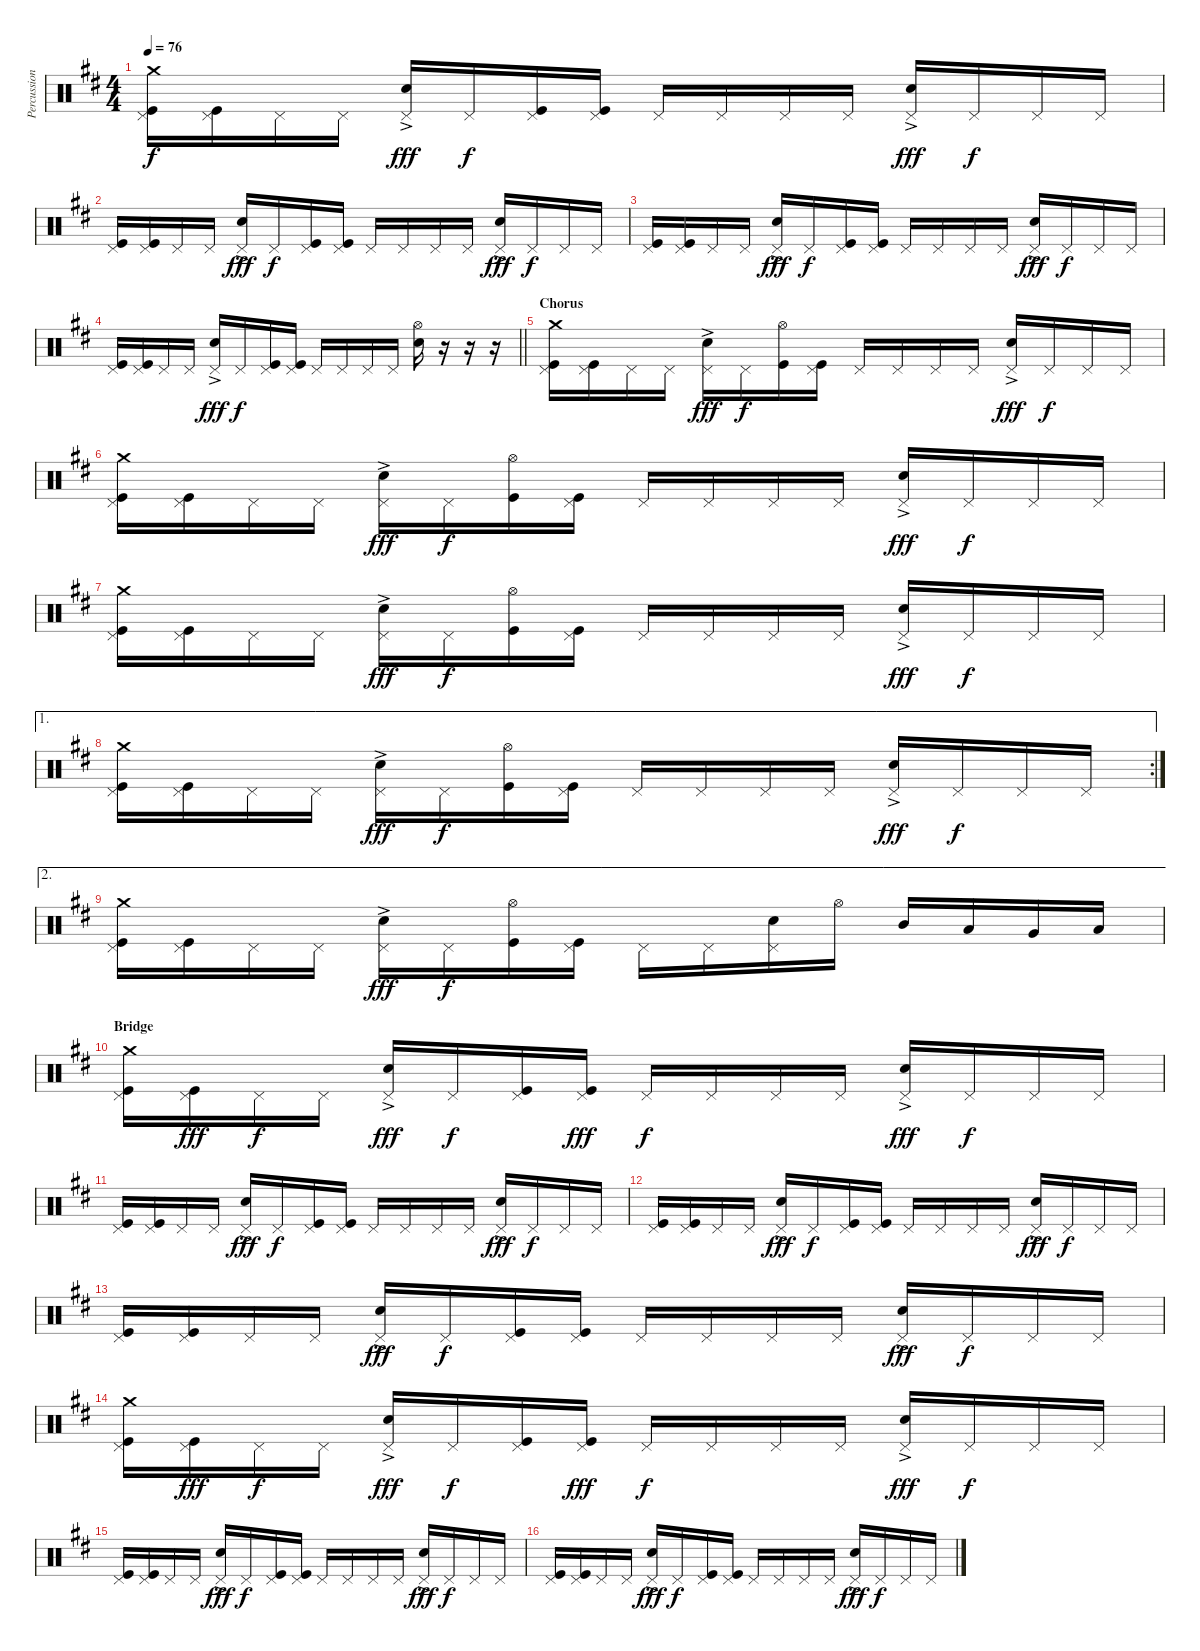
\track ("Percussion" "Percussion") {instrument percussion}
\staff {score}
\articulation defaults
\ts (4 4)
\tempo 76
\clef neutral
\ks d
("Kick (hit)" "Pedal Hi-Hat (hit)" "Crash medium (hit)").16{dy f} ("Kick (hit)" "Pedal Hi-Hat (hit)").16 "Pedal Hi-Hat (hit)".16 "Pedal Hi-Hat (hit)".16 ("Electric Snare (hit)"{ac} "Pedal Hi-Hat (hit)").16{dy fff} "Pedal Hi-Hat (hit)".16{dy f} ("Kick (hit)" "Pedal Hi-Hat (hit)").16 ("Kick (hit)" "Pedal Hi-Hat (hit)").16 "Pedal Hi-Hat (hit)".16 "Pedal Hi-Hat (hit)".16 "Pedal Hi-Hat (hit)".16 "Pedal Hi-Hat (hit)".16 ("Electric Snare (hit)"{ac} "Pedal Hi-Hat (hit)").16{dy fff} "Pedal Hi-Hat (hit)".16{dy f} "Pedal Hi-Hat (hit)".16 "Pedal Hi-Hat (hit)".16 |
("Kick (hit)" "Pedal Hi-Hat (hit)").16 ("Kick (hit)" "Pedal Hi-Hat (hit)").16 "Pedal Hi-Hat (hit)".16 "Pedal Hi-Hat (hit)".16 ("Electric Snare (hit)"{ac} "Pedal Hi-Hat (hit)").16{dy fff} "Pedal Hi-Hat (hit)".16{dy f} ("Kick (hit)" "Pedal Hi-Hat (hit)").16 ("Kick (hit)" "Pedal Hi-Hat (hit)").16 "Pedal Hi-Hat (hit)".16 "Pedal Hi-Hat (hit)".16 "Pedal Hi-Hat (hit)".16 "Pedal Hi-Hat (hit)".16 ("Electric Snare (hit)"{ac} "Pedal Hi-Hat (hit)").16{dy fff} "Pedal Hi-Hat (hit)".16{dy f} "Pedal Hi-Hat (hit)".16 "Pedal Hi-Hat (hit)".16 |
("Kick (hit)" "Pedal Hi-Hat (hit)").16 ("Kick (hit)" "Pedal Hi-Hat (hit)").16 "Pedal Hi-Hat (hit)".16 "Pedal Hi-Hat (hit)".16 ("Electric Snare (hit)"{ac} "Pedal Hi-Hat (hit)").16{dy fff} "Pedal Hi-Hat (hit)".16{dy f} ("Kick (hit)" "Pedal Hi-Hat (hit)").16 ("Kick (hit)" "Pedal Hi-Hat (hit)").16 "Pedal Hi-Hat (hit)".16 "Pedal Hi-Hat (hit)".16 "Pedal Hi-Hat (hit)".16 "Pedal Hi-Hat (hit)".16 ("Electric Snare (hit)"{ac} "Pedal Hi-Hat (hit)").16{dy fff} "Pedal Hi-Hat (hit)".16{dy f} "Pedal Hi-Hat (hit)".16 "Pedal Hi-Hat (hit)".16 |
\barLineRight lightlight
("Kick (hit)" "Pedal Hi-Hat (hit)").16 ("Kick (hit)" "Pedal Hi-Hat (hit)").16 "Pedal Hi-Hat (hit)".16 "Pedal Hi-Hat (hit)".16 ("Electric Snare (hit)"{ac} "Pedal Hi-Hat (hit)").16{dy fff} "Pedal Hi-Hat (hit)".16{dy f} ("Kick (hit)" "Pedal Hi-Hat (hit)").16 ("Kick (hit)" "Pedal Hi-Hat (hit)").16 "Pedal Hi-Hat (hit)".16 "Pedal Hi-Hat (hit)".16 "Pedal Hi-Hat (hit)".16 "Pedal Hi-Hat (hit)".16 ("Electric Snare (hit)" "Hi-Hat (open)").16 r.16 r.16 r.16 |
\section ("" "Chorus")
("Kick (hit)" "Pedal Hi-Hat (hit)" "Crash medium (hit)").16 ("Kick (hit)" "Pedal Hi-Hat (hit)").16 "Pedal Hi-Hat (hit)".16 "Pedal Hi-Hat (hit)".16 ("Electric Snare (hit)"{ac} "Pedal Hi-Hat (hit)").16{dy fff} "Pedal Hi-Hat (hit)".16{dy f} ("Kick (hit)" "Hi-Hat (open)").16 ("Kick (hit)" "Pedal Hi-Hat (hit)").16 "Pedal Hi-Hat (hit)".16 "Pedal Hi-Hat (hit)".16 "Pedal Hi-Hat (hit)".16 "Pedal Hi-Hat (hit)".16 ("Electric Snare (hit)"{ac} "Pedal Hi-Hat (hit)").16{dy fff} "Pedal Hi-Hat (hit)".16{dy f} "Pedal Hi-Hat (hit)".16 "Pedal Hi-Hat (hit)".16 |
("Kick (hit)" "Pedal Hi-Hat (hit)" "Crash medium (hit)").16 ("Kick (hit)" "Pedal Hi-Hat (hit)").16 "Pedal Hi-Hat (hit)".16 "Pedal Hi-Hat (hit)".16 ("Electric Snare (hit)"{ac} "Pedal Hi-Hat (hit)").16{dy fff} "Pedal Hi-Hat (hit)".16{dy f} ("Kick (hit)" "Hi-Hat (open)").16 ("Kick (hit)" "Pedal Hi-Hat (hit)").16 "Pedal Hi-Hat (hit)".16 "Pedal Hi-Hat (hit)".16 "Pedal Hi-Hat (hit)".16 "Pedal Hi-Hat (hit)".16 ("Electric Snare (hit)"{ac} "Pedal Hi-Hat (hit)").16{dy fff} "Pedal Hi-Hat (hit)".16{dy f} "Pedal Hi-Hat (hit)".16 "Pedal Hi-Hat (hit)".16 |
("Kick (hit)" "Pedal Hi-Hat (hit)" "Crash medium (hit)").16 ("Kick (hit)" "Pedal Hi-Hat (hit)").16 "Pedal Hi-Hat (hit)".16 "Pedal Hi-Hat (hit)".16 ("Electric Snare (hit)"{ac} "Pedal Hi-Hat (hit)").16{dy fff} "Pedal Hi-Hat (hit)".16{dy f} ("Kick (hit)" "Hi-Hat (open)").16 ("Kick (hit)" "Pedal Hi-Hat (hit)").16 "Pedal Hi-Hat (hit)".16 "Pedal Hi-Hat (hit)".16 "Pedal Hi-Hat (hit)".16 "Pedal Hi-Hat (hit)".16 ("Electric Snare (hit)"{ac} "Pedal Hi-Hat (hit)").16{dy fff} "Pedal Hi-Hat (hit)".16{dy f} "Pedal Hi-Hat (hit)".16 "Pedal Hi-Hat (hit)".16 |
\ae 1
\rc 2
("Kick (hit)" "Pedal Hi-Hat (hit)" "Crash medium (hit)").16 ("Kick (hit)" "Pedal Hi-Hat (hit)").16 "Pedal Hi-Hat (hit)".16 "Pedal Hi-Hat (hit)".16 ("Electric Snare (hit)"{ac} "Pedal Hi-Hat (hit)").16{dy fff} "Pedal Hi-Hat (hit)".16{dy f} ("Kick (hit)" "Hi-Hat (open)").16 ("Kick (hit)" "Pedal Hi-Hat (hit)").16 "Pedal Hi-Hat (hit)".16 "Pedal Hi-Hat (hit)".16 "Pedal Hi-Hat (hit)".16 "Pedal Hi-Hat (hit)".16 ("Electric Snare (hit)"{ac} "Pedal Hi-Hat (hit)").16{dy fff} "Pedal Hi-Hat (hit)".16{dy f} "Pedal Hi-Hat (hit)".16 "Pedal Hi-Hat (hit)".16 |
\ae 2
("Kick (hit)" "Pedal Hi-Hat (hit)" "Crash medium (hit)").16 ("Kick (hit)" "Pedal Hi-Hat (hit)").16 "Pedal Hi-Hat (hit)".16 "Pedal Hi-Hat (hit)".16 ("Electric Snare (hit)"{ac} "Pedal Hi-Hat (hit)").16{dy fff} "Pedal Hi-Hat (hit)".16{dy f} ("Kick (hit)" "Hi-Hat (open)").16 ("Kick (hit)" "Pedal Hi-Hat (hit)").16 "Pedal Hi-Hat (hit)".16 "Pedal Hi-Hat (hit)".16 ("Electric Snare (hit)" "Pedal Hi-Hat (hit)").16 "Hi-Hat (open)".16 "Mid Tom (hit)".16 "Low Tom (hit)".16 "Very Low Tom (hit)".16 "Low Floor Tom (hit)".16 |
\section ("" "Bridge")
("Kick (hit)" "Pedal Hi-Hat (hit)" "Crash medium (hit)").16 ("Kick (hit)" "Pedal Hi-Hat (hit)").16{dy fff} "Pedal Hi-Hat (hit)".16{dy f} "Pedal Hi-Hat (hit)".16 ("Electric Snare (hit)"{ac} "Pedal Hi-Hat (hit)").16{dy fff} "Pedal Hi-Hat (hit)".16{dy f} ("Kick (hit)" "Pedal Hi-Hat (hit)").16 ("Kick (hit)" "Pedal Hi-Hat (hit)").16{dy fff} "Pedal Hi-Hat (hit)".16{dy f} "Pedal Hi-Hat (hit)".16 "Pedal Hi-Hat (hit)".16 "Pedal Hi-Hat (hit)".16 ("Electric Snare (hit)"{ac} "Pedal Hi-Hat (hit)").16{dy fff} "Pedal Hi-Hat (hit)".16{dy f} "Pedal Hi-Hat (hit)".16 "Pedal Hi-Hat (hit)".16 |
("Kick (hit)" "Pedal Hi-Hat (hit)").16 ("Kick (hit)" "Pedal Hi-Hat (hit)").16 "Pedal Hi-Hat (hit)".16 "Pedal Hi-Hat (hit)".16 ("Electric Snare (hit)"{ac} "Pedal Hi-Hat (hit)").16{dy fff} "Pedal Hi-Hat (hit)".16{dy f} ("Kick (hit)" "Pedal Hi-Hat (hit)").16 ("Kick (hit)" "Pedal Hi-Hat (hit)").16 "Pedal Hi-Hat (hit)".16 "Pedal Hi-Hat (hit)".16 "Pedal Hi-Hat (hit)".16 "Pedal Hi-Hat (hit)".16 ("Electric Snare (hit)"{ac} "Pedal Hi-Hat (hit)").16{dy fff} "Pedal Hi-Hat (hit)".16{dy f} "Pedal Hi-Hat (hit)".16 "Pedal Hi-Hat (hit)".16 |
("Kick (hit)" "Pedal Hi-Hat (hit)").16 ("Kick (hit)" "Pedal Hi-Hat (hit)").16 "Pedal Hi-Hat (hit)".16 "Pedal Hi-Hat (hit)".16 ("Electric Snare (hit)"{ac} "Pedal Hi-Hat (hit)").16{dy fff} "Pedal Hi-Hat (hit)".16{dy f} ("Kick (hit)" "Pedal Hi-Hat (hit)").16 ("Kick (hit)" "Pedal Hi-Hat (hit)").16 "Pedal Hi-Hat (hit)".16 "Pedal Hi-Hat (hit)".16 "Pedal Hi-Hat (hit)".16 "Pedal Hi-Hat (hit)".16 ("Electric Snare (hit)"{ac} "Pedal Hi-Hat (hit)").16{dy fff} "Pedal Hi-Hat (hit)".16{dy f} "Pedal Hi-Hat (hit)".16 "Pedal Hi-Hat (hit)".16 |
("Kick (hit)" "Pedal Hi-Hat (hit)").16 ("Kick (hit)" "Pedal Hi-Hat (hit)").16 "Pedal Hi-Hat (hit)".16 "Pedal Hi-Hat (hit)".16 ("Electric Snare (hit)"{ac} "Pedal Hi-Hat (hit)").16{dy fff} "Pedal Hi-Hat (hit)".16{dy f} ("Kick (hit)" "Pedal Hi-Hat (hit)").16 ("Kick (hit)" "Pedal Hi-Hat (hit)").16 "Pedal Hi-Hat (hit)".16 "Pedal Hi-Hat (hit)".16 "Pedal Hi-Hat (hit)".16 "Pedal Hi-Hat (hit)".16 ("Electric Snare (hit)"{ac} "Pedal Hi-Hat (hit)").16{dy fff} "Pedal Hi-Hat (hit)".16{dy f} "Pedal Hi-Hat (hit)".16 "Pedal Hi-Hat (hit)".16 |
("Kick (hit)" "Pedal Hi-Hat (hit)" "Crash medium (hit)").16 ("Kick (hit)" "Pedal Hi-Hat (hit)").16{dy fff} "Pedal Hi-Hat (hit)".16{dy f} "Pedal Hi-Hat (hit)".16 ("Electric Snare (hit)"{ac} "Pedal Hi-Hat (hit)").16{dy fff} "Pedal Hi-Hat (hit)".16{dy f} ("Kick (hit)" "Pedal Hi-Hat (hit)").16 ("Kick (hit)" "Pedal Hi-Hat (hit)").16{dy fff} "Pedal Hi-Hat (hit)".16{dy f} "Pedal Hi-Hat (hit)".16 "Pedal Hi-Hat (hit)".16 "Pedal Hi-Hat (hit)".16 ("Electric Snare (hit)"{ac} "Pedal Hi-Hat (hit)").16{dy fff} "Pedal Hi-Hat (hit)".16{dy f} "Pedal Hi-Hat (hit)".16 "Pedal Hi-Hat (hit)".16 |
("Kick (hit)" "Pedal Hi-Hat (hit)").16 ("Kick (hit)" "Pedal Hi-Hat (hit)").16 "Pedal Hi-Hat (hit)".16 "Pedal Hi-Hat (hit)".16 ("Electric Snare (hit)"{ac} "Pedal Hi-Hat (hit)").16{dy fff} "Pedal Hi-Hat (hit)".16{dy f} ("Kick (hit)" "Pedal Hi-Hat (hit)").16 ("Kick (hit)" "Pedal Hi-Hat (hit)").16 "Pedal Hi-Hat (hit)".16 "Pedal Hi-Hat (hit)".16 "Pedal Hi-Hat (hit)".16 "Pedal Hi-Hat (hit)".16 ("Electric Snare (hit)"{ac} "Pedal Hi-Hat (hit)").16{dy fff} "Pedal Hi-Hat (hit)".16{dy f} "Pedal Hi-Hat (hit)".16 "Pedal Hi-Hat (hit)".16 |
("Kick (hit)" "Pedal Hi-Hat (hit)").16 ("Kick (hit)" "Pedal Hi-Hat (hit)").16 "Pedal Hi-Hat (hit)".16 "Pedal Hi-Hat (hit)".16 ("Electric Snare (hit)"{ac} "Pedal Hi-Hat (hit)").16{dy fff} "Pedal Hi-Hat (hit)".16{dy f} ("Kick (hit)" "Pedal Hi-Hat (hit)").16 ("Kick (hit)" "Pedal Hi-Hat (hit)").16 "Pedal Hi-Hat (hit)".16 "Pedal Hi-Hat (hit)".16 "Pedal Hi-Hat (hit)".16 "Pedal Hi-Hat (hit)".16 ("Electric Snare (hit)"{ac} "Pedal Hi-Hat (hit)").16{dy fff} "Pedal Hi-Hat (hit)".16{dy f} "Pedal Hi-Hat (hit)".16 "Pedal Hi-Hat (hit)".16
